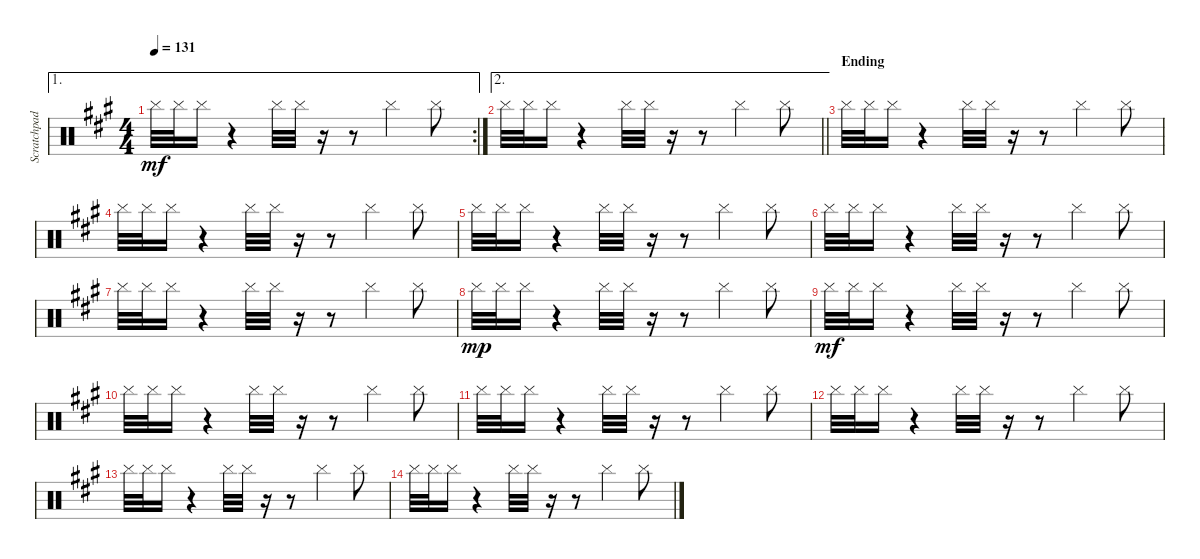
\track ("Scratchpad" "Scratchpad") {instrument percussion bank 2}
\staff {score}
\articulation defaults
\ae 1
\rc 2
\ts (4 4)
\tempo 131
\clef neutral
\ks f#minor "Cymbal (hit)".32{dy mf} "Cymbal (hit)".32 "Cymbal (hit)".16
r.4 "Cymbal (hit)".32 "Cymbal (hit)".32 r.16 r.8 "Cymbal (hit)".4 "Cymbal (hit)".8 |
\ae 2
\barLineRight lightlight "Cymbal (hit)".32 "Cymbal (hit)".32 "Cymbal (hit)".16
r.4 "Cymbal (hit)".32 "Cymbal (hit)".32 r.16 r.8 "Cymbal (hit)".4 "Cymbal (hit)".8 |
\section ("" "Ending")
"Cymbal (hit)".32 "Cymbal (hit)".32 "Cymbal (hit)".16 r.4 "Cymbal (hit)".32 "Cymbal (hit)".32 r.16 r.8 "Cymbal (hit)".4 "Cymbal (hit)".8 |
"Cymbal (hit)".32 "Cymbal (hit)".32 "Cymbal (hit)".16 r.4 "Cymbal (hit)".32 "Cymbal (hit)".32 r.16 r.8 "Cymbal (hit)".4 "Cymbal (hit)".8 |
"Cymbal (hit)".32 "Cymbal (hit)".32 "Cymbal (hit)".16 r.4 "Cymbal (hit)".32 "Cymbal (hit)".32 r.16 r.8 "Cymbal (hit)".4 "Cymbal (hit)".8 |
"Cymbal (hit)".32 "Cymbal (hit)".32 "Cymbal (hit)".16 r.4 "Cymbal (hit)".32 "Cymbal (hit)".32 r.16 r.8 "Cymbal (hit)".4 "Cymbal (hit)".8 |
"Cymbal (hit)".32 "Cymbal (hit)".32 "Cymbal (hit)".16 r.4 "Cymbal (hit)".32 "Cymbal (hit)".32 r.16 r.8 "Cymbal (hit)".4 "Cymbal (hit)".8 |
"Cymbal (hit)".32{dy mp} "Cymbal (hit)".32 "Cymbal (hit)".16 r.4 "Cymbal (hit)".32 "Cymbal (hit)".32 r.16 r.8 "Cymbal (hit)".4 "Cymbal (hit)".8 |
"Cymbal (hit)".32{dy mf} "Cymbal (hit)".32 "Cymbal (hit)".16 r.4 "Cymbal (hit)".32 "Cymbal (hit)".32 r.16 r.8 "Cymbal (hit)".4 "Cymbal (hit)".8 |
"Cymbal (hit)".32 "Cymbal (hit)".32 "Cymbal (hit)".16 r.4 "Cymbal (hit)".32 "Cymbal (hit)".32 r.16 r.8 "Cymbal (hit)".4 "Cymbal (hit)".8 |
"Cymbal (hit)".32 "Cymbal (hit)".32 "Cymbal (hit)".16 r.4 "Cymbal (hit)".32 "Cymbal (hit)".32 r.16 r.8 "Cymbal (hit)".4 "Cymbal (hit)".8 |
"Cymbal (hit)".32 "Cymbal (hit)".32 "Cymbal (hit)".16 r.4 "Cymbal (hit)".32 "Cymbal (hit)".32 r.16 r.8 "Cymbal (hit)".4 "Cymbal (hit)".8 |
"Cymbal (hit)".32 "Cymbal (hit)".32 "Cymbal (hit)".16 r.4 "Cymbal (hit)".32 "Cymbal (hit)".32 r.16 r.8 "Cymbal (hit)".4 "Cymbal (hit)".8 |
"Cymbal (hit)".32 "Cymbal (hit)".32 "Cymbal (hit)".16 r.4 "Cymbal (hit)".32 "Cymbal (hit)".32 r.16 r.8 "Cymbal (hit)".4 "Cymbal (hit)".8
